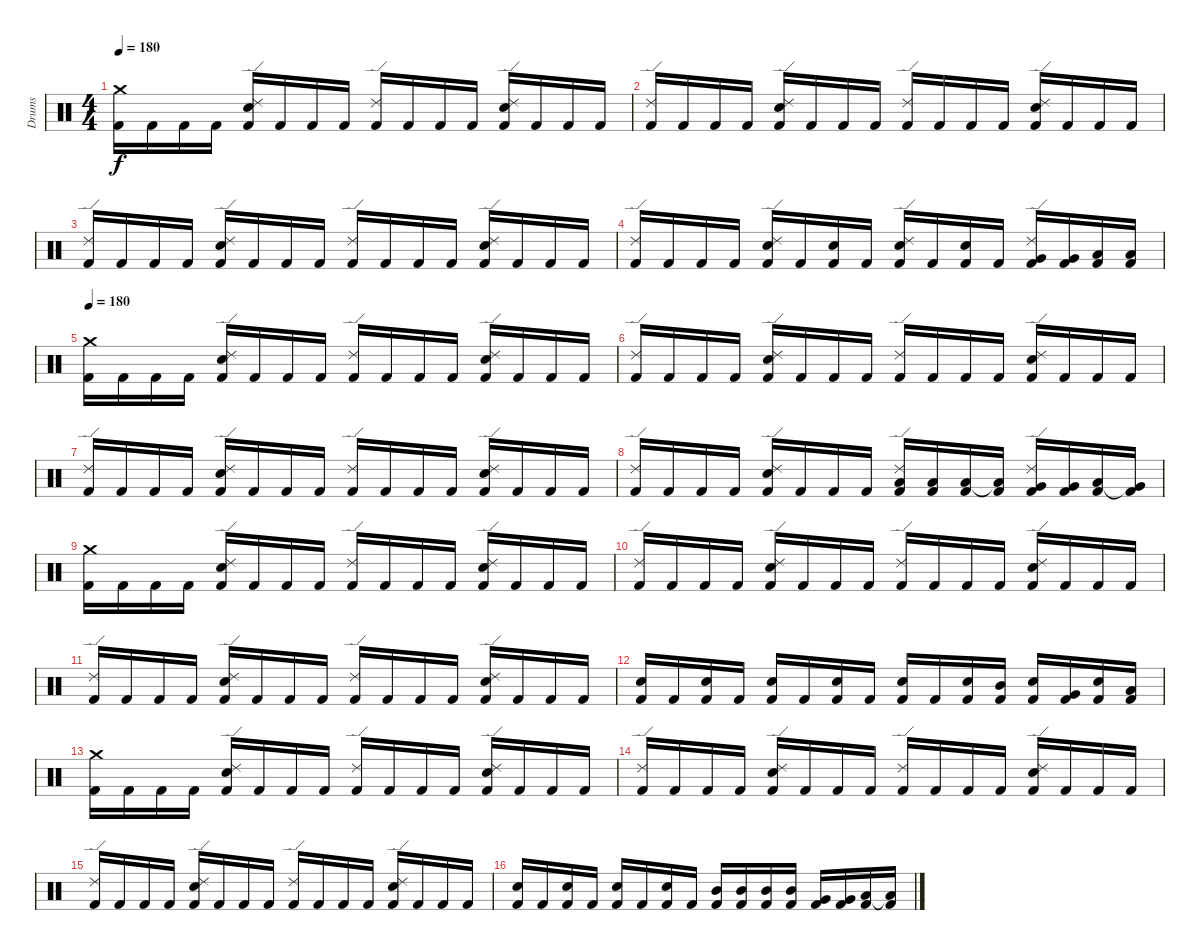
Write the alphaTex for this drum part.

\track ("Drums" "Drums") {instrument percussion}
\staff {score}
\articulation defaults
\ts (4 4)
\section ("" "")
\tempo 180
\clef neutral
\ks c
("Crash medium (hit)" "Kick (hit) 2").16{dy f} "Kick (hit) 2".16 "Kick (hit) 2".16 "Kick (hit) 2".16 ("Ride (edge) 2" "Snare (hit) 2" "Kick (hit) 2").16 "Kick (hit) 2".16 "Kick (hit) 2".16 "Kick (hit) 2".16 ("Ride (edge) 2" "Kick (hit) 2").16 "Kick (hit) 2".16 "Kick (hit) 2".16 "Kick (hit) 2".16 ("Ride (edge) 2" "Snare (hit) 2" "Kick (hit) 2").16 "Kick (hit) 2".16 "Kick (hit) 2".16 "Kick (hit) 2".16 |
("Ride (edge) 2" "Kick (hit) 2").16 "Kick (hit) 2".16 "Kick (hit) 2".16 "Kick (hit) 2".16 ("Ride (edge) 2" "Snare (hit) 2" "Kick (hit) 2").16 "Kick (hit) 2".16 "Kick (hit) 2".16 "Kick (hit) 2".16 ("Ride (edge) 2" "Kick (hit) 2").16 "Kick (hit) 2".16 "Kick (hit) 2".16 "Kick (hit) 2".16 ("Ride (edge) 2" "Snare (hit) 2" "Kick (hit) 2").16 "Kick (hit) 2".16 "Kick (hit) 2".16 "Kick (hit) 2".16 |
("Ride (edge) 2" "Kick (hit) 2").16 "Kick (hit) 2".16 "Kick (hit) 2".16 "Kick (hit) 2".16 ("Ride (edge) 2" "Snare (hit) 2" "Kick (hit) 2").16 "Kick (hit) 2".16 "Kick (hit) 2".16 "Kick (hit) 2".16 ("Ride (edge) 2" "Kick (hit) 2").16 "Kick (hit) 2".16 "Kick (hit) 2".16 "Kick (hit) 2".16 ("Ride (edge) 2" "Snare (hit) 2" "Kick (hit) 2").16 "Kick (hit) 2".16 "Kick (hit) 2".16 "Kick (hit) 2".16 |
("Ride (edge) 2" "Kick (hit) 2").16 "Kick (hit) 2".16 "Kick (hit) 2".16 "Kick (hit) 2".16 ("Ride (edge) 2" "Snare (hit) 2" "Kick (hit) 2").16 "Kick (hit) 2".16 ("Snare (hit) 2" "Kick (hit) 2").16 "Kick (hit) 2".16 ("Ride (edge) 2" "Snare (hit) 2" "Kick (hit) 2").16 "Kick (hit) 2".16 ("Snare (hit) 2" "Kick (hit) 2").16 "Kick (hit) 2".16 ("Ride (edge) 2" "Very Low Tom (hit)" "Kick (hit) 2").16 ("Very Low Tom (hit)" "Kick (hit) 2").16 ("Low Floor Tom (hit)" "Kick (hit) 2").16 ("Low Floor Tom (hit)" "Kick (hit) 2").16 |
\tempo 180
("Crash medium (hit)" "Kick (hit) 2").16 "Kick (hit) 2".16 "Kick (hit) 2".16 "Kick (hit) 2".16 ("Ride (edge) 2" "Snare (hit) 2" "Kick (hit) 2").16 "Kick (hit) 2".16 "Kick (hit) 2".16 "Kick (hit) 2".16 ("Ride (edge) 2" "Kick (hit) 2").16 "Kick (hit) 2".16 "Kick (hit) 2".16 "Kick (hit) 2".16 ("Ride (edge) 2" "Snare (hit) 2" "Kick (hit) 2").16 "Kick (hit) 2".16 "Kick (hit) 2".16 "Kick (hit) 2".16 |
("Ride (edge) 2" "Kick (hit) 2").16 "Kick (hit) 2".16 "Kick (hit) 2".16 "Kick (hit) 2".16 ("Ride (edge) 2" "Snare (hit) 2" "Kick (hit) 2").16 "Kick (hit) 2".16 "Kick (hit) 2".16 "Kick (hit) 2".16 ("Ride (edge) 2" "Kick (hit) 2").16 "Kick (hit) 2".16 "Kick (hit) 2".16 "Kick (hit) 2".16 ("Ride (edge) 2" "Snare (hit) 2" "Kick (hit) 2").16 "Kick (hit) 2".16 "Kick (hit) 2".16 "Kick (hit) 2".16 |
("Ride (edge) 2" "Kick (hit) 2").16 "Kick (hit) 2".16 "Kick (hit) 2".16 "Kick (hit) 2".16 ("Ride (edge) 2" "Snare (hit) 2" "Kick (hit) 2").16 "Kick (hit) 2".16 "Kick (hit) 2".16 "Kick (hit) 2".16 ("Ride (edge) 2" "Kick (hit) 2").16 "Kick (hit) 2".16 "Kick (hit) 2".16 "Kick (hit) 2".16 ("Ride (edge) 2" "Snare (hit) 2" "Kick (hit) 2").16 "Kick (hit) 2".16 "Kick (hit) 2".16 "Kick (hit) 2".16 |
("Ride (edge) 2" "Kick (hit) 2").16 "Kick (hit) 2".16 "Kick (hit) 2".16 "Kick (hit) 2".16 ("Ride (edge) 2" "Snare (hit) 2" "Kick (hit) 2").16 "Kick (hit) 2".16 "Kick (hit) 2".16 "Kick (hit) 2".16 ("Ride (edge) 2" "Low Tom (hit)" "Kick (hit) 2").16 ("Low Tom (hit)" "Kick (hit) 2").16 ("Low Tom (hit)" "Kick (hit) 2").16 ("Low Tom (hit)"{t} "Kick (hit) 2").16 ("Ride (edge) 2" "Very Low Tom (hit)" "Kick (hit) 2").16 ("Very Low Tom (hit)" "Kick (hit) 2").16 ("Low Tom (hit)" "Kick (hit) 2").16 ("Very Low Tom (hit)"{t} "Kick (hit) 2").16 |
("Crash medium (hit)" "Kick (hit) 2").16 "Kick (hit) 2".16 "Kick (hit) 2".16 "Kick (hit) 2".16 ("Ride (edge) 2" "Snare (hit) 2" "Kick (hit) 2").16 "Kick (hit) 2".16 "Kick (hit) 2".16 "Kick (hit) 2".16 ("Ride (edge) 2" "Kick (hit) 2").16 "Kick (hit) 2".16 "Kick (hit) 2".16 "Kick (hit) 2".16 ("Ride (edge) 2" "Snare (hit) 2" "Kick (hit) 2").16 "Kick (hit) 2".16 "Kick (hit) 2".16 "Kick (hit) 2".16 |
("Ride (edge) 2" "Kick (hit) 2").16 "Kick (hit) 2".16 "Kick (hit) 2".16 "Kick (hit) 2".16 ("Ride (edge) 2" "Snare (hit) 2" "Kick (hit) 2").16 "Kick (hit) 2".16 "Kick (hit) 2".16 "Kick (hit) 2".16 ("Ride (edge) 2" "Kick (hit) 2").16 "Kick (hit) 2".16 "Kick (hit) 2".16 "Kick (hit) 2".16 ("Ride (edge) 2" "Snare (hit) 2" "Kick (hit) 2").16 "Kick (hit) 2".16 "Kick (hit) 2".16 "Kick (hit) 2".16 |
("Ride (edge) 2" "Kick (hit) 2").16 "Kick (hit) 2".16 "Kick (hit) 2".16 "Kick (hit) 2".16 ("Ride (edge) 2" "Snare (hit) 2" "Kick (hit) 2").16 "Kick (hit) 2".16 "Kick (hit) 2".16 "Kick (hit) 2".16 ("Ride (edge) 2" "Kick (hit) 2").16 "Kick (hit) 2".16 "Kick (hit) 2".16 "Kick (hit) 2".16 ("Ride (edge) 2" "Snare (hit) 2" "Kick (hit) 2").16 "Kick (hit) 2".16 "Kick (hit) 2".16 "Kick (hit) 2".16 |
("Snare (hit) 2" "Kick (hit) 2").16 "Kick (hit) 2".16 ("Snare (hit) 2" "Kick (hit) 2").16 "Kick (hit) 2".16 ("Snare (hit) 2" "Kick (hit) 2").16 "Kick (hit) 2".16 ("Snare (hit) 2" "Kick (hit) 2").16 "Kick (hit) 2".16 ("Snare (hit) 2" "Kick (hit) 2").16 "Kick (hit) 2".16 ("Snare (hit) 2" "Kick (hit) 2").16 ("Mid Tom (hit)" "Kick (hit) 2").16 ("Snare (hit) 2" "Kick (hit) 2").16 ("Very Low Tom (hit)" "Kick (hit) 2").16 ("Snare (hit) 2" "Kick (hit) 2").16 ("Low Floor Tom (hit)" "Kick (hit) 2").16 |
("Crash medium (hit)" "Kick (hit) 2").16 "Kick (hit) 2".16 "Kick (hit) 2".16 "Kick (hit) 2".16 ("Ride (edge) 2" "Snare (hit) 2" "Kick (hit) 2").16 "Kick (hit) 2".16 "Kick (hit) 2".16 "Kick (hit) 2".16 ("Ride (edge) 2" "Kick (hit) 2").16 "Kick (hit) 2".16 "Kick (hit) 2".16 "Kick (hit) 2".16 ("Ride (edge) 2" "Snare (hit) 2" "Kick (hit) 2").16 "Kick (hit) 2".16 "Kick (hit) 2".16 "Kick (hit) 2".16 |
("Ride (edge) 2" "Kick (hit) 2").16 "Kick (hit) 2".16 "Kick (hit) 2".16 "Kick (hit) 2".16 ("Ride (edge) 2" "Snare (hit) 2" "Kick (hit) 2").16 "Kick (hit) 2".16 "Kick (hit) 2".16 "Kick (hit) 2".16 ("Ride (edge) 2" "Kick (hit) 2").16 "Kick (hit) 2".16 "Kick (hit) 2".16 "Kick (hit) 2".16 ("Ride (edge) 2" "Snare (hit) 2" "Kick (hit) 2").16 "Kick (hit) 2".16 "Kick (hit) 2".16 "Kick (hit) 2".16 |
("Ride (edge) 2" "Kick (hit) 2").16 "Kick (hit) 2".16 "Kick (hit) 2".16 "Kick (hit) 2".16 ("Ride (edge) 2" "Snare (hit) 2" "Kick (hit) 2").16 "Kick (hit) 2".16 "Kick (hit) 2".16 "Kick (hit) 2".16 ("Ride (edge) 2" "Kick (hit) 2").16 "Kick (hit) 2".16 "Kick (hit) 2".16 "Kick (hit) 2".16 ("Ride (edge) 2" "Snare (hit) 2" "Kick (hit) 2").16 "Kick (hit) 2".16 "Kick (hit) 2".16 "Kick (hit) 2".16 |
("Snare (hit) 2" "Kick (hit) 2").16 "Kick (hit) 2".16 ("Snare (hit) 2" "Kick (hit) 2").16 "Kick (hit) 2".16 ("Snare (hit) 2" "Kick (hit) 2").16 "Kick (hit) 2".16 ("Snare (hit) 2" "Kick (hit) 2").16 "Kick (hit) 2".16 ("Mid Tom (hit)" "Kick (hit) 2").16 ("Mid Tom (hit)" "Kick (hit) 2").16 ("Mid Tom (hit)" "Kick (hit) 2").16 ("Mid Tom (hit)" "Kick (hit) 2").16 ("Very Low Tom (hit)" "Kick (hit) 2").16 ("Very Low Tom (hit)" "Kick (hit) 2").16 ("Low Floor Tom (hit)" "Kick (hit) 2").16 ("Low Floor Tom (hit)"{t} "Kick (hit) 2").16
